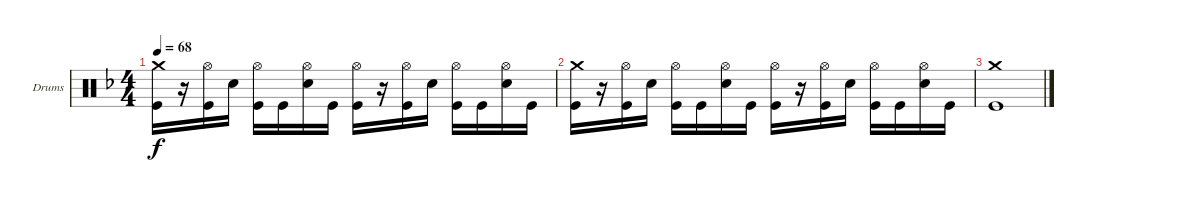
\defaultSystemsLayout 4
\bracketExtendMode groupsimilarinstruments
\firstSystemTrackNameOrientation horizontal
\otherSystemsTrackNameOrientation horizontal
\track ("Drumkit" "Drums") {instrument percussion}
\staff {score}
\articulation defaults
\ts (4 4)
\tempo 68
\clef neutral
\ks f
("Crash medium (hit)" "Kick (hit)").16{dy f} r.16 ("Hi-Hat (open)" "Kick (hit)").16 "Snare (hit) 2".16 ("Hi-Hat (open)" "Kick (hit)").16 "Kick (hit)".16 ("Hi-Hat (open)" "Snare (hit) 2").16 "Kick (hit)".16 ("Hi-Hat (open)" "Kick (hit)").16 r.16 ("Hi-Hat (open)" "Kick (hit)").16 "Snare (hit) 2".16 ("Hi-Hat (open)" "Kick (hit)").16 "Kick (hit)".16 ("Hi-Hat (open)" "Snare (hit) 2").16 "Kick (hit)".16 |
("Crash medium (hit)" "Kick (hit)").16 r.16 ("Hi-Hat (open)" "Kick (hit)").16 "Snare (hit) 2".16 ("Hi-Hat (open)" "Kick (hit)").16 "Kick (hit)".16 ("Hi-Hat (open)" "Snare (hit) 2").16 "Kick (hit)".16 ("Hi-Hat (open)" "Kick (hit)").16 r.16 ("Hi-Hat (open)" "Kick (hit)").16 "Snare (hit) 2".16 ("Hi-Hat (open)" "Kick (hit)").16 "Kick (hit)".16 ("Hi-Hat (open)" "Snare (hit) 2").16 "Kick (hit)".16 |
("Crash medium (hit)" "Kick (hit)").1
